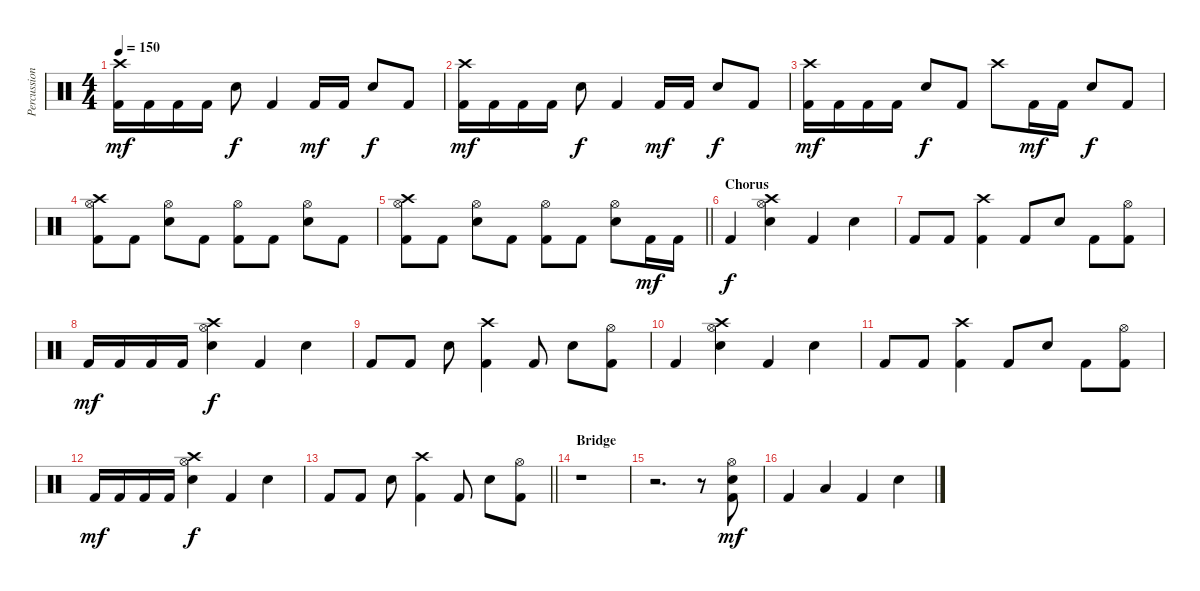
\track ("Percussion" "Percussion") {instrument percussion}
\staff {score}
\articulation defaults
\ts (4 4)
\tempo 150
\clef neutral
\ks c
("Crash high (hit)" "Kick (hit) 2").16{dy mf} "Kick (hit) 2".16 "Kick (hit) 2".16 "Kick (hit) 2".16 "Electric Snare (hit)".8{dy f} "Kick (hit) 2".4 "Kick (hit) 2".16{dy mf} "Kick (hit) 2".16 "Electric Snare (hit)".8{dy f} "Kick (hit) 2".8 |
("Crash high (hit)" "Kick (hit) 2").16{dy mf} "Kick (hit) 2".16 "Kick (hit) 2".16 "Kick (hit) 2".16 "Electric Snare (hit)".8{dy f} "Kick (hit) 2".4 "Kick (hit) 2".16{dy mf} "Kick (hit) 2".16 "Electric Snare (hit)".8{dy f} "Kick (hit) 2".8 |
("Crash high (hit)" "Kick (hit) 2").16{dy mf} "Kick (hit) 2".16 "Kick (hit) 2".16 "Kick (hit) 2".16 "Electric Snare (hit)".8{dy f} "Kick (hit) 2".8 "Crash high (hit)".8 "Kick (hit) 2".16{dy mf} "Kick (hit) 2".16 "Electric Snare (hit)".8{dy f} "Kick (hit) 2".8 |
("Hi-Hat (open)" "Crash high (hit)" "Kick (hit) 2").8 "Kick (hit) 2".8 ("Hi-Hat (open)" "Electric Snare (hit)").8 "Kick (hit) 2".8 ("Hi-Hat (open)" "Kick (hit) 2").8 "Kick (hit) 2".8 ("Hi-Hat (open)" "Electric Snare (hit)").8 "Kick (hit) 2".8 |
\barLineRight lightlight
("Hi-Hat (open)" "Crash high (hit)" "Kick (hit) 2").8 "Kick (hit) 2".8 ("Hi-Hat (open)" "Electric Snare (hit)").8 "Kick (hit) 2".8 ("Hi-Hat (open)" "Kick (hit) 2").8 "Kick (hit) 2".8 ("Hi-Hat (open)" "Electric Snare (hit)").8 "Kick (hit) 2".16{dy mf} "Kick (hit) 2".16 |
\section ("" "Chorus")
"Kick (hit) 2".4{dy f} ("Crash high (hit)" "Electric Snare (hit)" "Hi-Hat (open)").4 "Kick (hit) 2".4 "Electric Snare (hit)".4 |
"Kick (hit) 2".8 "Kick (hit) 2".8 ("Crash high (hit)" "Kick (hit) 2").4 "Kick (hit) 2".8 "Electric Snare (hit)".8 "Kick (hit) 2".8 ("Hi-Hat (open)" "Kick (hit) 2").8 |
"Kick (hit) 2".16{dy mf} "Kick (hit) 2".16 "Kick (hit) 2".16 "Kick (hit) 2".16 ("Crash high (hit)" "Electric Snare (hit)" "Hi-Hat (open)").4{dy f} "Kick (hit) 2".4 "Electric Snare (hit)".4 |
"Kick (hit) 2".8 "Kick (hit) 2".8 "Electric Snare (hit)".8 ("Crash high (hit)" "Kick (hit) 2").4 "Kick (hit) 2".8 "Electric Snare (hit)".8 ("Hi-Hat (open)" "Kick (hit) 2").8 |
"Kick (hit) 2".4 ("Crash high (hit)" "Electric Snare (hit)" "Hi-Hat (open)").4 "Kick (hit) 2".4 "Electric Snare (hit)".4 |
"Kick (hit) 2".8 "Kick (hit) 2".8 ("Crash high (hit)" "Kick (hit) 2").4 "Kick (hit) 2".8 "Electric Snare (hit)".8 "Kick (hit) 2".8 ("Hi-Hat (open)" "Kick (hit) 2").8 |
"Kick (hit) 2".16{dy mf} "Kick (hit) 2".16 "Kick (hit) 2".16 "Kick (hit) 2".16 ("Crash high (hit)" "Electric Snare (hit)" "Hi-Hat (open)").4{dy f} "Kick (hit) 2".4 "Electric Snare (hit)".4 |
\barLineRight lightlight "Kick (hit) 2".8 "Kick (hit) 2".8 "Electric Snare (hit)".8
("Crash high (hit)" "Kick (hit) 2").4 "Kick (hit) 2".8 "Electric Snare (hit)".8 ("Hi-Hat (open)" "Kick (hit) 2").8 |
\section ("" "Bridge")
r.1 |
r.2{d} r.8 ("Electric Snare (hit)" "Kick (hit) 2" "Hi-Hat (open)").8{dy mf} |
"Kick (hit) 2".4 "Low Floor Tom (hit)".4 "Kick (hit) 2".4 "Electric Snare (hit)".4
